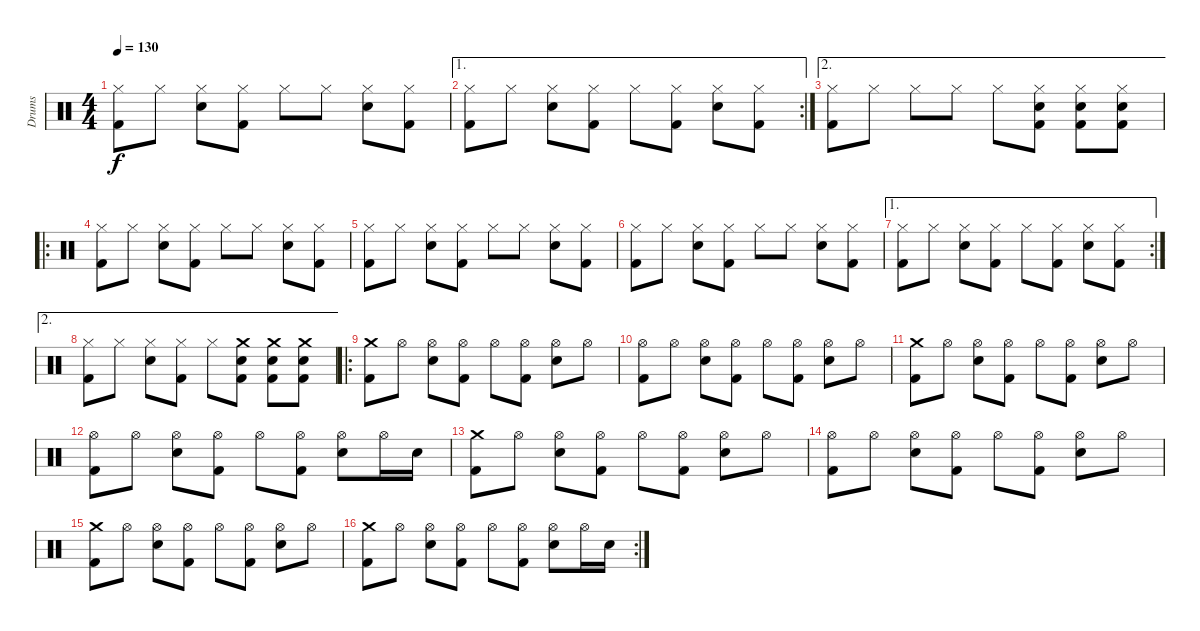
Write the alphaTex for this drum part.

\track ("Drums" "Drums") {instrument percussion}
\staff {score}
\articulation defaults
\ts (4 4)
\tempo 130
\clef neutral
\ks c
("Hi-Hat (closed)" "Kick (hit) 2").8{dy f} "Hi-Hat (closed)".8 ("Hi-Hat (closed)" "Electric Snare (hit)").8 ("Hi-Hat (closed)" "Kick (hit) 2").8 "Hi-Hat (closed)".8 "Hi-Hat (closed)".8 ("Hi-Hat (closed)" "Electric Snare (hit)").8 ("Hi-Hat (closed)" "Kick (hit) 2").8 |
\ae 1
\rc 2
("Hi-Hat (closed)" "Kick (hit) 2").8 "Hi-Hat (closed)".8 ("Hi-Hat (closed)" "Electric Snare (hit)").8 ("Hi-Hat (closed)" "Kick (hit) 2").8 "Hi-Hat (closed)".8 ("Hi-Hat (closed)" "Kick (hit) 2").8 ("Hi-Hat (closed)" "Electric Snare (hit)").8 ("Hi-Hat (closed)" "Kick (hit) 2").8 |
\ae 2
("Hi-Hat (closed)" "Kick (hit) 2").8 "Hi-Hat (closed)".8 "Hi-Hat (closed)".8 "Hi-Hat (closed)".8 "Hi-Hat (closed)".8 ("Hi-Hat (closed)" "Electric Snare (hit)" "Kick (hit) 2").8 ("Hi-Hat (closed)" "Electric Snare (hit)" "Kick (hit) 2").8 ("Hi-Hat (closed)" "Electric Snare (hit)" "Kick (hit) 2").8 |
\ro
("Hi-Hat (closed)" "Kick (hit) 2").8 "Hi-Hat (closed)".8 ("Hi-Hat (closed)" "Electric Snare (hit)").8 ("Hi-Hat (closed)" "Kick (hit) 2").8 "Hi-Hat (closed)".8 "Hi-Hat (closed)".8 ("Hi-Hat (closed)" "Electric Snare (hit)").8 ("Hi-Hat (closed)" "Kick (hit) 2").8 |
("Hi-Hat (closed)" "Kick (hit) 2").8 "Hi-Hat (closed)".8 ("Hi-Hat (closed)" "Electric Snare (hit)").8 ("Hi-Hat (closed)" "Kick (hit) 2").8 "Hi-Hat (closed)".8 "Hi-Hat (closed)".8 ("Hi-Hat (closed)" "Electric Snare (hit)").8 ("Hi-Hat (closed)" "Kick (hit) 2").8 |
("Hi-Hat (closed)" "Kick (hit) 2").8 "Hi-Hat (closed)".8 ("Hi-Hat (closed)" "Electric Snare (hit)").8 ("Hi-Hat (closed)" "Kick (hit) 2").8 "Hi-Hat (closed)".8 "Hi-Hat (closed)".8 ("Hi-Hat (closed)" "Electric Snare (hit)").8 ("Hi-Hat (closed)" "Kick (hit) 2").8 |
\ae 1
\rc 2
("Hi-Hat (closed)" "Kick (hit) 2").8 "Hi-Hat (closed)".8 ("Hi-Hat (closed)" "Electric Snare (hit)").8 ("Hi-Hat (closed)" "Kick (hit) 2").8 "Hi-Hat (closed)".8 ("Hi-Hat (closed)" "Kick (hit) 2").8 ("Hi-Hat (closed)" "Electric Snare (hit)").8 ("Hi-Hat (closed)" "Kick (hit) 2").8 |
\ae 2
("Hi-Hat (closed)" "Kick (hit) 2").8 "Hi-Hat (closed)".8 ("Hi-Hat (closed)" "Electric Snare (hit)").8 ("Hi-Hat (closed)" "Kick (hit) 2").8 "Hi-Hat (closed)".8 ("Crash medium (hit)" "Electric Snare (hit)" "Kick (hit) 2").8 ("Crash medium (hit)" "Electric Snare (hit)" "Kick (hit) 2").8 ("Crash medium (hit)" "Electric Snare (hit)" "Kick (hit) 2").8 |
\ro
("Crash medium (hit)" "Kick (hit) 2").8 "Hi-Hat (open)".8 ("Hi-Hat (open)" "Electric Snare (hit)").8 ("Hi-Hat (open)" "Kick (hit) 2").8 "Hi-Hat (open)".8 ("Hi-Hat (open)" "Kick (hit) 2").8 ("Hi-Hat (open)" "Electric Snare (hit)").8 "Hi-Hat (open)".8 |
("Hi-Hat (open)" "Kick (hit) 2").8 "Hi-Hat (open)".8 ("Hi-Hat (open)" "Electric Snare (hit)").8 ("Hi-Hat (open)" "Kick (hit) 2").8 "Hi-Hat (open)".8 ("Hi-Hat (open)" "Kick (hit) 2").8 ("Hi-Hat (open)" "Electric Snare (hit)").8 "Hi-Hat (open)".8 |
("Crash medium (hit)" "Kick (hit) 2").8 "Hi-Hat (open)".8 ("Hi-Hat (open)" "Electric Snare (hit)").8 ("Hi-Hat (open)" "Kick (hit) 2").8 "Hi-Hat (open)".8 ("Hi-Hat (open)" "Kick (hit) 2").8 ("Hi-Hat (open)" "Electric Snare (hit)").8 "Hi-Hat (open)".8 |
("Hi-Hat (open)" "Kick (hit) 2").8 "Hi-Hat (open)".8 ("Hi-Hat (open)" "Electric Snare (hit)").8 ("Hi-Hat (open)" "Kick (hit) 2").8 "Hi-Hat (open)".8 ("Hi-Hat (open)" "Kick (hit) 2").8 ("Hi-Hat (open)" "Electric Snare (hit)").8 "Hi-Hat (open)".16 "Electric Snare (hit)".16 |
("Crash medium (hit)" "Kick (hit) 2").8 "Hi-Hat (open)".8 ("Hi-Hat (open)" "Electric Snare (hit)").8 ("Hi-Hat (open)" "Kick (hit) 2").8 "Hi-Hat (open)".8 ("Hi-Hat (open)" "Kick (hit) 2").8 ("Hi-Hat (open)" "Electric Snare (hit)").8 "Hi-Hat (open)".8 |
("Hi-Hat (open)" "Kick (hit) 2").8 "Hi-Hat (open)".8 ("Hi-Hat (open)" "Electric Snare (hit)").8 ("Hi-Hat (open)" "Kick (hit) 2").8 "Hi-Hat (open)".8 ("Hi-Hat (open)" "Kick (hit) 2").8 ("Hi-Hat (open)" "Electric Snare (hit)").8 "Hi-Hat (open)".8 |
("Crash medium (hit)" "Kick (hit) 2").8 "Hi-Hat (open)".8 ("Hi-Hat (open)" "Electric Snare (hit)").8 ("Hi-Hat (open)" "Kick (hit) 2").8 "Hi-Hat (open)".8 ("Hi-Hat (open)" "Kick (hit) 2").8 ("Hi-Hat (open)" "Electric Snare (hit)").8 "Hi-Hat (open)".8 |
\rc 2
("Crash medium (hit)" "Kick (hit) 2").8 "Hi-Hat (open)".8 ("Hi-Hat (open)" "Electric Snare (hit)").8 ("Hi-Hat (open)" "Kick (hit) 2").8 "Hi-Hat (open)".8 ("Hi-Hat (open)" "Kick (hit) 2").8 ("Hi-Hat (open)" "Electric Snare (hit)").8 "Hi-Hat (open)".16 "Electric Snare (hit)".16
